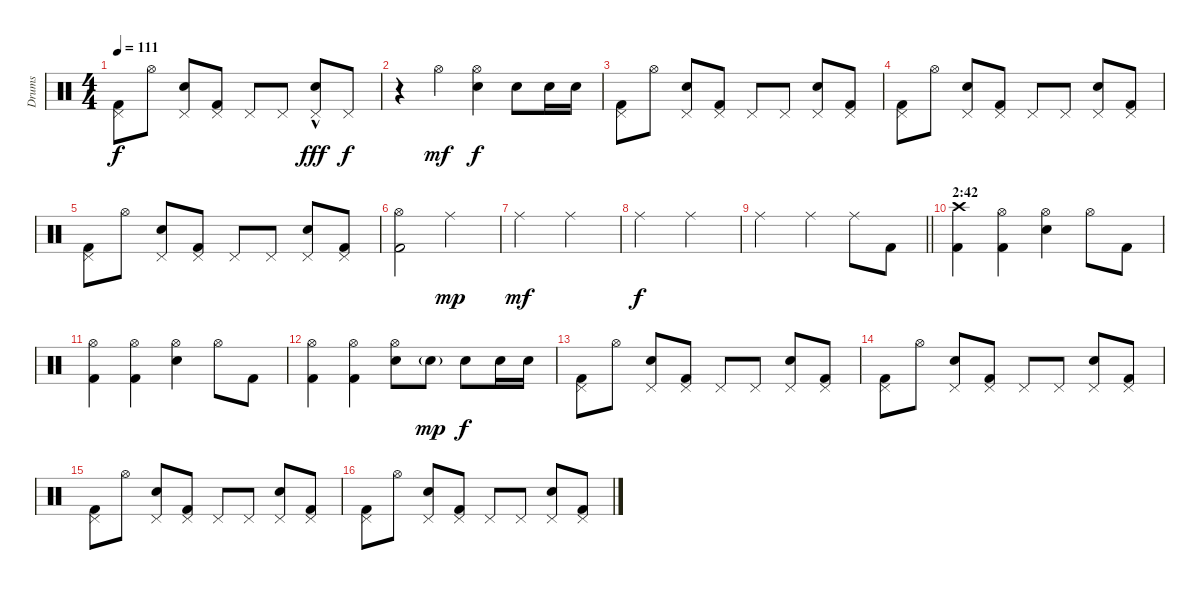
\track ("Drums" "Drums") {instrument percussion}
\staff {score}
\articulation defaults
\ts (4 4)
\tempo 111
\clef neutral
\ks c
("Pedal Hi-Hat (hit)" "Kick (hit) 2").8{dy f} "Hi-Hat (open)".8 ("Pedal Hi-Hat (hit)" "Snare (hit) 2").8 ("Pedal Hi-Hat (hit)" "Kick (hit) 2").8 "Pedal Hi-Hat (hit)".8 "Pedal Hi-Hat (hit)".8 ("Pedal Hi-Hat (hit)" "Snare (hit) 2"{hac}).8{dy fff} "Pedal Hi-Hat (hit)".8{dy f} |
r.4 "Hi-Hat (open)".4{dy mf} ("Hi-Hat (open)" "Snare (hit) 2").4{dy f} "Snare (hit) 2".8 "Snare (hit) 2".16 "Snare (hit) 2".16 |
("Pedal Hi-Hat (hit)" "Kick (hit) 2").8 "Hi-Hat (open)".8 ("Pedal Hi-Hat (hit)" "Snare (hit) 2").8 ("Pedal Hi-Hat (hit)" "Kick (hit) 2").8 "Pedal Hi-Hat (hit)".8 "Pedal Hi-Hat (hit)".8 ("Pedal Hi-Hat (hit)" "Snare (hit) 2").8 ("Pedal Hi-Hat (hit)" "Kick (hit) 2").8 |
("Pedal Hi-Hat (hit)" "Kick (hit) 2").8 "Hi-Hat (open)".8 ("Pedal Hi-Hat (hit)" "Snare (hit) 2").8 ("Pedal Hi-Hat (hit)" "Kick (hit) 2").8 "Pedal Hi-Hat (hit)".8 "Pedal Hi-Hat (hit)".8 ("Pedal Hi-Hat (hit)" "Snare (hit) 2").8 ("Pedal Hi-Hat (hit)" "Kick (hit) 2").8 |
("Pedal Hi-Hat (hit)" "Kick (hit) 2").8 "Hi-Hat (open)".8 ("Pedal Hi-Hat (hit)" "Snare (hit) 2").8 ("Pedal Hi-Hat (hit)" "Kick (hit) 2").8 "Pedal Hi-Hat (hit)".8 "Pedal Hi-Hat (hit)".8 ("Pedal Hi-Hat (hit)" "Snare (hit) 2").8 ("Pedal Hi-Hat (hit)" "Kick (hit) 2").8 |
("Hi-Hat (open)" "Kick (hit) 2").2 "Ride (middle)".2{dy mp} |
"Ride (middle)".2{dy mf} "Ride (middle)".2 |
"Ride (middle)".2{dy f} "Ride (middle)".2 |
\barLineRight lightlight "Ride (middle)".2 "Ride (middle)".4 "Ride (middle)".8 "Kick (hit) 2".8
|
\section ("" "2:42")
("Crash high (hit)" "Kick (hit) 2").4 ("Hi-Hat (open)" "Kick (hit) 2").4 ("Hi-Hat (open)" "Snare (hit) 2").4 "Hi-Hat (open)".8 "Kick (hit) 2".8 |
("Hi-Hat (open)" "Kick (hit) 2").4 ("Hi-Hat (open)" "Kick (hit) 2").4 ("Hi-Hat (open)" "Snare (hit) 2").4 "Hi-Hat (open)".8 "Kick (hit) 2".8 |
("Hi-Hat (open)" "Kick (hit) 2").4 ("Hi-Hat (open)" "Kick (hit) 2").4 ("Hi-Hat (open)" "Snare (hit) 2").8 "Snare (hit) 2"{g}.8{dy mp} "Snare (hit) 2".8{dy f} "Snare (hit) 2".16 "Snare (hit) 2".16 |
("Pedal Hi-Hat (hit)" "Kick (hit) 2").8 "Hi-Hat (open)".8 ("Pedal Hi-Hat (hit)" "Snare (hit) 2").8 ("Pedal Hi-Hat (hit)" "Kick (hit) 2").8 "Pedal Hi-Hat (hit)".8 "Pedal Hi-Hat (hit)".8 ("Pedal Hi-Hat (hit)" "Snare (hit) 2").8 ("Pedal Hi-Hat (hit)" "Kick (hit) 2").8 |
("Pedal Hi-Hat (hit)" "Kick (hit) 2").8 "Hi-Hat (open)".8 ("Pedal Hi-Hat (hit)" "Snare (hit) 2").8 ("Pedal Hi-Hat (hit)" "Kick (hit) 2").8 "Pedal Hi-Hat (hit)".8 "Pedal Hi-Hat (hit)".8 ("Pedal Hi-Hat (hit)" "Snare (hit) 2").8 ("Pedal Hi-Hat (hit)" "Kick (hit) 2").8 |
("Pedal Hi-Hat (hit)" "Kick (hit) 2").8 "Hi-Hat (open)".8 ("Pedal Hi-Hat (hit)" "Snare (hit) 2").8 ("Pedal Hi-Hat (hit)" "Kick (hit) 2").8 "Pedal Hi-Hat (hit)".8 "Pedal Hi-Hat (hit)".8 ("Pedal Hi-Hat (hit)" "Snare (hit) 2").8 ("Pedal Hi-Hat (hit)" "Kick (hit) 2").8 |
("Pedal Hi-Hat (hit)" "Kick (hit) 2").8{volume 7} "Hi-Hat (open)".8 ("Pedal Hi-Hat (hit)" "Snare (hit) 2").8 ("Pedal Hi-Hat (hit)" "Kick (hit) 2").8 "Pedal Hi-Hat (hit)".8 "Pedal Hi-Hat (hit)".8 ("Pedal Hi-Hat (hit)" "Snare (hit) 2").8 ("Pedal Hi-Hat (hit)" "Kick (hit) 2").8
